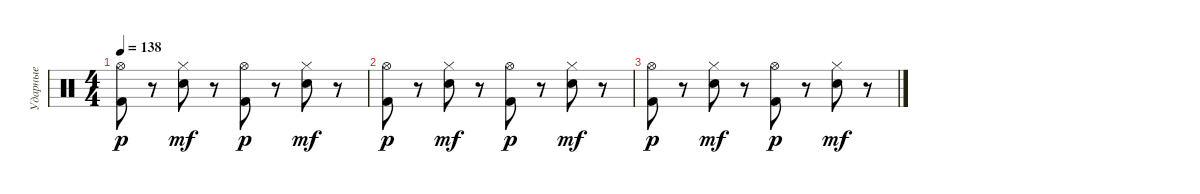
\track ("Ударные" "Ударные") {instrument percussion}
\staff {score}
\articulation defaults
\ts (4 4)
\tempo 138
\clef neutral
\ks c
("Hi-Hat (open)" "Kick (hit) 2").8{dy p} r.8 ("Hi-Hat (closed)" "Snare (hit) 2").8{dy mf} r.8 ("Hi-Hat (open)" "Kick (hit) 2").8{dy p} r.8 ("Hi-Hat (closed)" "Snare (hit) 2").8{dy mf} r.8 |
("Hi-Hat (open)" "Kick (hit) 2").8{dy p} r.8 ("Hi-Hat (closed)" "Snare (hit) 2").8{dy mf} r.8 ("Hi-Hat (open)" "Kick (hit) 2").8{dy p} r.8 ("Hi-Hat (closed)" "Snare (hit) 2").8{dy mf} r.8 |
("Hi-Hat (open)" "Kick (hit) 2").8{dy p} r.8 ("Hi-Hat (closed)" "Snare (hit) 2").8{dy mf} r.8 ("Hi-Hat (open)" "Kick (hit) 2").8{dy p} r.8 ("Hi-Hat (closed)" "Snare (hit) 2").8{dy mf} r.8
